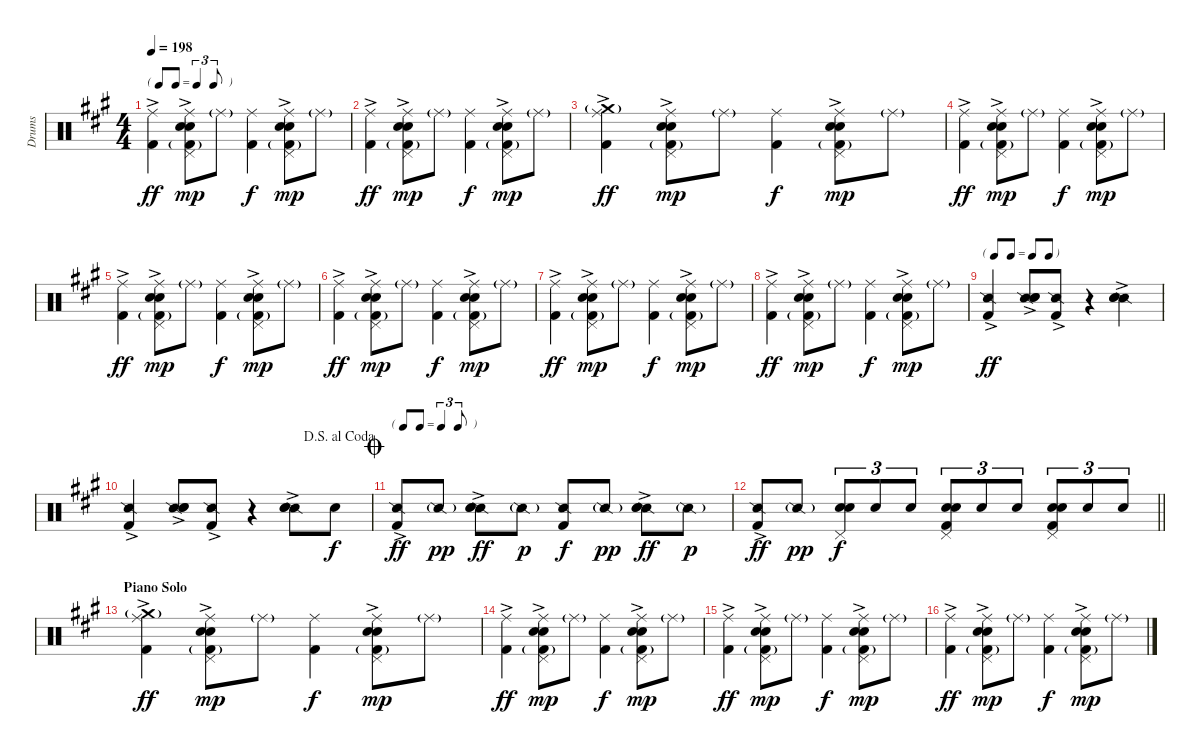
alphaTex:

\track ("Drums" "Drums") {instrument percussion}
\staff {score}
\articulation defaults
\ts (4 4)
\tf triplet8th
\tempo 198
\clef neutral
\ks a
("Ride (middle)" "Kick (hit) 2"{ac}).4{dy ff} ("Ride (middle)" "Pedal Hi-Hat (hit)" "Electric Snare (hit)"{ac} "Snare (hit) 2" "Kick (hit) 2"{g}).8{dy mp} "Ride (middle)"{g}.8 ("Ride (middle)" "Kick (hit) 2").4{dy f} ("Ride (middle)" "Pedal Hi-Hat (hit)" "Electric Snare (hit)"{ac} "Snare (hit) 2" "Kick (hit) 2"{g}).8{dy mp} "Ride (middle)"{g}.8 |
("Ride (middle)" "Kick (hit) 2"{ac}).4{dy ff} ("Ride (middle)" "Pedal Hi-Hat (hit)" "Electric Snare (hit)"{ac} "Snare (hit) 2" "Kick (hit) 2"{g}).8{dy mp} "Ride (middle)"{g}.8 ("Ride (middle)" "Kick (hit) 2").4{dy f} ("Ride (middle)" "Pedal Hi-Hat (hit)" "Electric Snare (hit)"{ac} "Snare (hit) 2" "Kick (hit) 2"{g}).8{dy mp} "Ride (middle)"{g}.8 |
("Ride (middle)" "Crash medium (hit)"{g} "Kick (hit) 2"{ac}).4{dy ff} ("Ride (middle)" "Pedal Hi-Hat (hit)" "Electric Snare (hit)"{ac} "Snare (hit) 2" "Kick (hit) 2"{g}).8{dy mp} "Ride (middle)"{g}.8 ("Ride (middle)" "Kick (hit) 2").4{dy f} ("Ride (middle)" "Pedal Hi-Hat (hit)" "Electric Snare (hit)"{ac} "Snare (hit) 2" "Kick (hit) 2"{g}).8{dy mp} "Ride (middle)"{g}.8 |
("Ride (middle)" "Kick (hit) 2"{ac}).4{dy ff} ("Ride (middle)" "Pedal Hi-Hat (hit)" "Electric Snare (hit)"{ac} "Snare (hit) 2" "Kick (hit) 2"{g}).8{dy mp} "Ride (middle)"{g}.8 ("Ride (middle)" "Kick (hit) 2").4{dy f} ("Ride (middle)" "Pedal Hi-Hat (hit)" "Electric Snare (hit)"{ac} "Snare (hit) 2" "Kick (hit) 2"{g}).8{dy mp} "Ride (middle)"{g}.8 |
("Ride (middle)" "Kick (hit) 2"{ac}).4{dy ff} ("Ride (middle)" "Pedal Hi-Hat (hit)" "Electric Snare (hit)"{ac} "Snare (hit) 2" "Kick (hit) 2"{g}).8{dy mp} "Ride (middle)"{g}.8 ("Ride (middle)" "Kick (hit) 2").4{dy f} ("Ride (middle)" "Pedal Hi-Hat (hit)" "Electric Snare (hit)"{ac} "Snare (hit) 2" "Kick (hit) 2"{g}).8{dy mp} "Ride (middle)"{g}.8 |
("Ride (middle)" "Kick (hit) 2"{ac}).4{dy ff} ("Ride (middle)" "Pedal Hi-Hat (hit)" "Electric Snare (hit)"{ac} "Snare (hit) 2" "Kick (hit) 2"{g}).8{dy mp} "Ride (middle)"{g}.8 ("Ride (middle)" "Kick (hit) 2").4{dy f} ("Ride (middle)" "Pedal Hi-Hat (hit)" "Electric Snare (hit)"{ac} "Snare (hit) 2" "Kick (hit) 2"{g}).8{dy mp} "Ride (middle)"{g}.8 |
("Ride (middle)" "Kick (hit) 2"{ac}).4{dy ff} ("Ride (middle)" "Pedal Hi-Hat (hit)" "Electric Snare (hit)"{ac} "Snare (hit) 2" "Kick (hit) 2"{g}).8{dy mp} "Ride (middle)"{g}.8 ("Ride (middle)" "Kick (hit) 2").4{dy f} ("Ride (middle)" "Pedal Hi-Hat (hit)" "Electric Snare (hit)"{ac} "Snare (hit) 2" "Kick (hit) 2"{g}).8{dy mp} "Ride (middle)"{g}.8 |
("Ride (middle)" "Kick (hit) 2"{ac}).4{dy ff} ("Ride (middle)" "Pedal Hi-Hat (hit)" "Electric Snare (hit)"{ac} "Snare (hit) 2" "Kick (hit) 2"{g}).8{dy mp} "Ride (middle)"{g}.8 ("Ride (middle)" "Kick (hit) 2").4{dy f} ("Ride (middle)" "Pedal Hi-Hat (hit)" "Electric Snare (hit)"{ac} "Snare (hit) 2" "Kick (hit) 2"{g}).8{dy mp} "Ride (middle)"{g}.8 |
\tf none
("Snare (side stick) 2" "Kick (hit) 2"{ac}).4{dy ff} ("Snare (side stick) 2" "Electric Snare (hit)"{ac} "Snare (hit) 2").8 ("Snare (side stick) 2" "Kick (hit) 2"{ac}).8 r.4 ("Snare (side stick) 2" "Electric Snare (hit)"{ac} "Snare (hit) 2").4 |
\jump dalsegnoalcoda
("Snare (side stick) 2" "Kick (hit) 2"{ac}).4 ("Snare (side stick) 2" "Electric Snare (hit)"{ac} "Snare (hit) 2").8 ("Snare (side stick) 2" "Kick (hit) 2"{ac}).8 r.4 ("Snare (side stick) 2" "Electric Snare (hit)"{ac} "Snare (hit) 2").8 "Snare (hit) 2".8{dy f} |
\tf triplet8th
\jump coda
("Snare (side stick) 2" "Kick (hit) 2"{ac}).8{dy ff} "Snare (side stick) 2"{g}.8{dy pp} ("Snare (side stick) 2" "Electric Snare (hit)"{ac} "Snare (hit) 2").8{dy ff} "Snare (side stick) 2"{g}.8{dy p} ("Snare (side stick) 2" "Kick (hit) 2").8{dy f} "Snare (side stick) 2"{g}.8{dy pp} ("Snare (side stick) 2" "Electric Snare (hit)"{ac} "Snare (hit) 2").8{dy ff} "Snare (side stick) 2"{g}.8{dy p} |
\barLineRight lightlight
("Snare (side stick) 2" "Kick (hit) 2"{ac}).8{dy ff} "Snare (side stick) 2"{g}.8{dy pp} ("Pedal Hi-Hat (hit)" "Electric Snare (hit)" "Snare (hit) 2").8{tu (3 2) dy f} "Snare (hit) 2".8{tu (3 2)} "Snare (hit) 2".8{tu (3 2)} ("Pedal Hi-Hat (hit)" "Electric Snare (hit)" "Snare (hit) 2" "Kick (hit) 2").8{tu (3 2)} "Snare (hit) 2".8{tu (3 2)} "Snare (hit) 2".8{tu (3 2)} ("Pedal Hi-Hat (hit)" "Electric Snare (hit)" "Snare (hit) 2" "Kick (hit) 2").8{tu (3 2)} "Snare (hit) 2".8{tu (3 2)} "Snare (hit) 2".8{tu (3 2)} |
\section ("" "Piano Solo")
("Ride (middle)" "Crash medium (hit)"{g} "Kick (hit) 2"{ac}).4{dy ff} ("Ride (middle)" "Pedal Hi-Hat (hit)" "Electric Snare (hit)"{ac} "Snare (hit) 2" "Kick (hit) 2"{g}).8{dy mp} "Ride (middle)"{g}.8 ("Ride (middle)" "Kick (hit) 2").4{dy f} ("Ride (middle)" "Pedal Hi-Hat (hit)" "Electric Snare (hit)"{ac} "Snare (hit) 2" "Kick (hit) 2"{g}).8{dy mp} "Ride (middle)"{g}.8 |
("Ride (middle)" "Kick (hit) 2"{ac}).4{dy ff} ("Ride (middle)" "Pedal Hi-Hat (hit)" "Electric Snare (hit)"{ac} "Snare (hit) 2" "Kick (hit) 2"{g}).8{dy mp} "Ride (middle)"{g}.8 ("Ride (middle)" "Kick (hit) 2").4{dy f} ("Ride (middle)" "Pedal Hi-Hat (hit)" "Electric Snare (hit)"{ac} "Snare (hit) 2" "Kick (hit) 2"{g}).8{dy mp} "Ride (middle)"{g}.8 |
("Ride (middle)" "Kick (hit) 2"{ac}).4{dy ff} ("Ride (middle)" "Pedal Hi-Hat (hit)" "Electric Snare (hit)"{ac} "Snare (hit) 2" "Kick (hit) 2"{g}).8{dy mp} "Ride (middle)"{g}.8 ("Ride (middle)" "Kick (hit) 2").4{dy f} ("Ride (middle)" "Pedal Hi-Hat (hit)" "Electric Snare (hit)"{ac} "Snare (hit) 2" "Kick (hit) 2"{g}).8{dy mp} "Ride (middle)"{g}.8 |
("Ride (middle)" "Kick (hit) 2"{ac}).4{dy ff} ("Ride (middle)" "Pedal Hi-Hat (hit)" "Electric Snare (hit)"{ac} "Snare (hit) 2" "Kick (hit) 2"{g}).8{dy mp} "Ride (middle)"{g}.8 ("Ride (middle)" "Kick (hit) 2").4{dy f} ("Ride (middle)" "Pedal Hi-Hat (hit)" "Electric Snare (hit)"{ac} "Snare (hit) 2" "Kick (hit) 2"{g}).8{dy mp} "Ride (middle)"{g}.8
